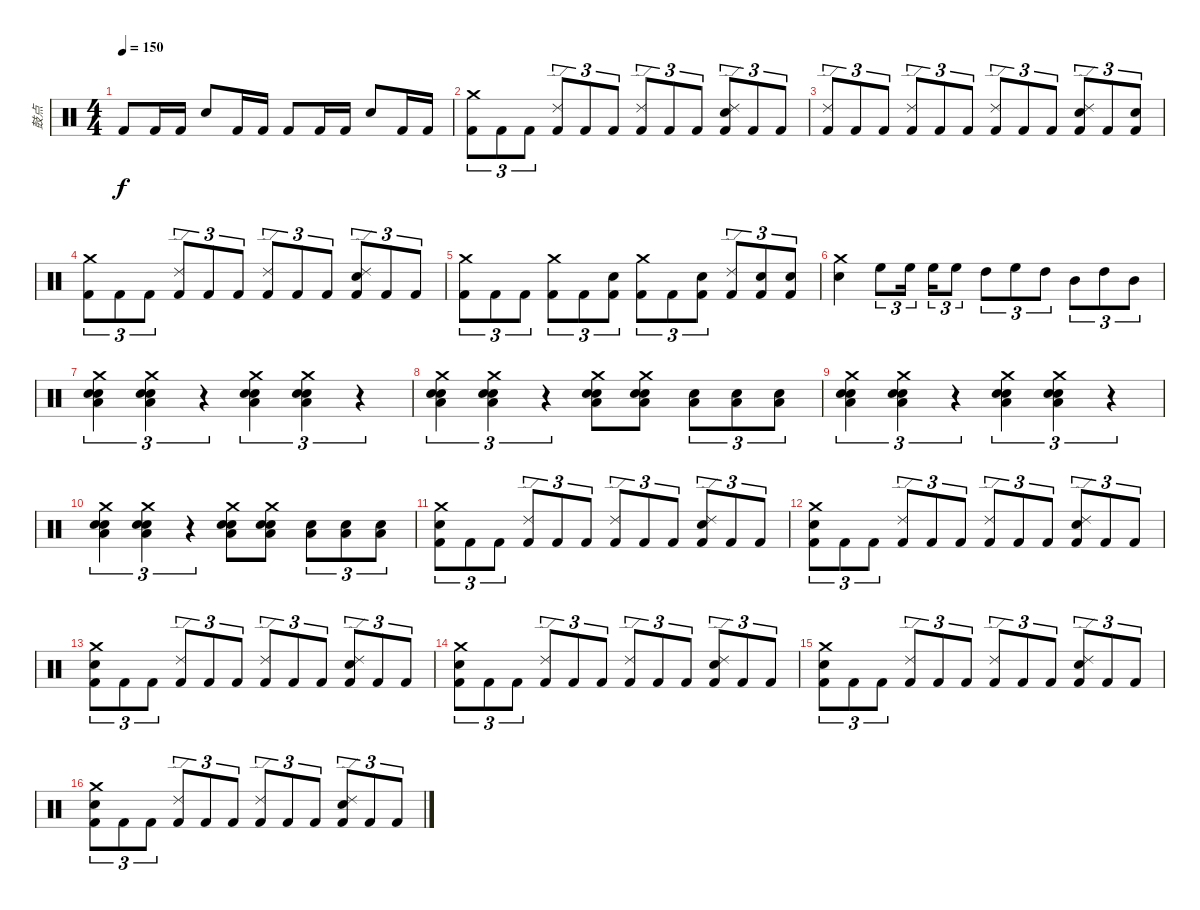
\track ("鼓点" "鼓点") {instrument percussion}
\staff {score}
\articulation defaults
\ts (4 4)
\tempo 150
\clef neutral
\ks c "Kick (hit) 2".8{dy f} "Kick (hit) 2".16 "Kick (hit) 2".16 "Snare (hit) 2".8 "Kick (hit) 2".16 "Kick (hit) 2".16 "Kick (hit) 2".8 "Kick (hit) 2".16 "Kick (hit) 2".16 "Snare (hit) 2".8 "Kick (hit) 2".16 "Kick (hit) 2".16
|
("Kick (hit) 2" "Crash medium (hit)").8{tu (3 2)} "Kick (hit) 2".8{tu (3 2)} "Kick (hit) 2".8{tu (3 2)} ("Kick (hit) 2" "Ride (edge) 2").8{tu (3 2)} "Kick (hit) 2".8{tu (3 2)} "Kick (hit) 2".8{tu (3 2)} ("Kick (hit) 2" "Ride (edge) 2").8{tu (3 2)} "Kick (hit) 2".8{tu (3 2)} "Kick (hit) 2".8{tu (3 2)} ("Kick (hit) 2" "Ride (edge) 2" "Snare (hit) 2").8{tu (3 2)} "Kick (hit) 2".8{tu (3 2)} "Kick (hit) 2".8{tu (3 2)} |
("Kick (hit) 2" "Ride (edge) 2").8{tu (3 2)} "Kick (hit) 2".8{tu (3 2)} "Kick (hit) 2".8{tu (3 2)} ("Kick (hit) 2" "Ride (edge) 2").8{tu (3 2)} "Kick (hit) 2".8{tu (3 2)} "Kick (hit) 2".8{tu (3 2)} ("Kick (hit) 2" "Ride (edge) 2").8{tu (3 2)} "Kick (hit) 2".8{tu (3 2)} "Kick (hit) 2".8{tu (3 2)} ("Kick (hit) 2" "Ride (edge) 2" "Snare (hit) 2").8{tu (3 2)} "Kick (hit) 2".8{tu (3 2)} ("Kick (hit) 2" "Snare (hit) 2").8{tu (3 2)} |
("Kick (hit) 2" "Crash medium (hit)").8{tu (3 2)} "Kick (hit) 2".8{tu (3 2)} "Kick (hit) 2".8{tu (3 2)} ("Kick (hit) 2" "Ride (edge) 2").8{tu (3 2)} "Kick (hit) 2".8{tu (3 2)} "Kick (hit) 2".8{tu (3 2)} ("Kick (hit) 2" "Ride (edge) 2").8{tu (3 2)} "Kick (hit) 2".8{tu (3 2)} "Kick (hit) 2".8{tu (3 2)} ("Kick (hit) 2" "Ride (edge) 2" "Snare (hit) 2").8{tu (3 2)} "Kick (hit) 2".8{tu (3 2)} "Kick (hit) 2".8{tu (3 2)} |
("Kick (hit) 2" "Crash medium (hit)").8{tu (3 2)} "Kick (hit) 2".8{tu (3 2)} "Kick (hit) 2".8{tu (3 2)} ("Kick (hit) 2" "Crash medium (hit)").8{tu (3 2)} "Kick (hit) 2".8{tu (3 2)} ("Kick (hit) 2" "Snare (hit) 2").8{tu (3 2)} ("Kick (hit) 2" "Crash medium (hit)").8{tu (3 2)} "Kick (hit) 2".8{tu (3 2)} ("Kick (hit) 2" "Snare (hit) 2").8{tu (3 2)} ("Kick (hit) 2" "Ride (edge) 2").8{tu (3 2)} ("Kick (hit) 2" "Snare (hit) 2").8{tu (3 2)} ("Kick (hit) 2" "Snare (hit) 2").8{tu (3 2)} |
("Snare (hit) 2" "Crash medium (hit)").4 "High Floor Tom (hit)".8{tu (3 2)} "High Floor Tom (hit)".16{tu (3 2) beam splitsecondary} "High Floor Tom (hit)".16{tu (3 2)} "High Floor Tom (hit)".8{tu (3 2)} "High Tom (hit)".8{tu (3 2)} "High Floor Tom (hit)".8{tu (3 2)} "High Tom (hit)".8{tu (3 2)} "Mid Tom (hit)".8{tu (3 2)} "High Tom (hit)".8{tu (3 2)} "Mid Tom (hit)".8{tu (3 2)} |
("Crash medium (hit)" "Snare (hit) 2" "Hand Clap (hit)" "Low Floor Tom (hit)").4{tu (3 2)} ("Crash medium (hit)" "Snare (hit) 2" "Hand Clap (hit)" "Low Floor Tom (hit)").4{tu (3 2)} r.4{tu (3 2)} ("Crash medium (hit)" "Snare (hit) 2" "Hand Clap (hit)" "Low Floor Tom (hit)").4{tu (3 2)} ("Crash medium (hit)" "Snare (hit) 2" "Hand Clap (hit)" "Low Floor Tom (hit)").4{tu (3 2)} r.4{tu (3 2)} |
("Crash medium (hit)" "Snare (hit) 2" "Hand Clap (hit)" "Low Floor Tom (hit)").4{tu (3 2)} ("Crash medium (hit)" "Snare (hit) 2" "Hand Clap (hit)" "Low Floor Tom (hit)").4{tu (3 2)} r.4{tu (3 2)} ("Crash medium (hit)" "Snare (hit) 2" "Hand Clap (hit)" "Low Floor Tom (hit)").8 ("Crash medium (hit)" "Snare (hit) 2" "Hand Clap (hit)" "Low Floor Tom (hit)").8 ("Snare (hit) 2" "Low Floor Tom (hit)").8{tu (3 2)} ("Snare (hit) 2" "Low Floor Tom (hit)").8{tu (3 2)} ("Snare (hit) 2" "Low Floor Tom (hit)").8{tu (3 2)} |
("Crash medium (hit)" "Snare (hit) 2" "Hand Clap (hit)" "Low Floor Tom (hit)").4{tu (3 2)} ("Crash medium (hit)" "Snare (hit) 2" "Hand Clap (hit)" "Low Floor Tom (hit)").4{tu (3 2)} r.4{tu (3 2)} ("Crash medium (hit)" "Snare (hit) 2" "Hand Clap (hit)" "Low Floor Tom (hit)").4{tu (3 2)} ("Crash medium (hit)" "Snare (hit) 2" "Hand Clap (hit)" "Low Floor Tom (hit)").4{tu (3 2)} r.4{tu (3 2)} |
("Crash medium (hit)" "Snare (hit) 2" "Hand Clap (hit)" "Low Floor Tom (hit)").4{tu (3 2)} ("Crash medium (hit)" "Snare (hit) 2" "Hand Clap (hit)" "Low Floor Tom (hit)").4{tu (3 2)} r.4{tu (3 2)} ("Crash medium (hit)" "Snare (hit) 2" "Hand Clap (hit)" "Low Floor Tom (hit)").8 ("Crash medium (hit)" "Snare (hit) 2" "Hand Clap (hit)" "Low Floor Tom (hit)").8 ("Snare (hit) 2" "Low Floor Tom (hit)").8{tu (3 2)} ("Snare (hit) 2" "Low Floor Tom (hit)").8{tu (3 2)} ("Snare (hit) 2" "Low Floor Tom (hit)").8{tu (3 2)} |
("Kick (hit) 2" "Crash medium (hit)" "Snare (hit) 2").8{tu (3 2)} "Kick (hit) 2".8{tu (3 2)} "Kick (hit) 2".8{tu (3 2)} ("Kick (hit) 2" "Ride (edge) 2").8{tu (3 2)} "Kick (hit) 2".8{tu (3 2)} "Kick (hit) 2".8{tu (3 2)} ("Kick (hit) 2" "Ride (edge) 2").8{tu (3 2)} "Kick (hit) 2".8{tu (3 2)} "Kick (hit) 2".8{tu (3 2)} ("Kick (hit) 2" "Ride (edge) 2" "Snare (hit) 2").8{tu (3 2)} "Kick (hit) 2".8{tu (3 2)} "Kick (hit) 2".8{tu (3 2)} |
("Kick (hit) 2" "Crash medium (hit)" "Snare (hit) 2").8{tu (3 2)} "Kick (hit) 2".8{tu (3 2)} "Kick (hit) 2".8{tu (3 2)} ("Kick (hit) 2" "Ride (edge) 2").8{tu (3 2)} "Kick (hit) 2".8{tu (3 2)} "Kick (hit) 2".8{tu (3 2)} ("Kick (hit) 2" "Ride (edge) 2").8{tu (3 2)} "Kick (hit) 2".8{tu (3 2)} "Kick (hit) 2".8{tu (3 2)} ("Kick (hit) 2" "Ride (edge) 2" "Snare (hit) 2").8{tu (3 2)} "Kick (hit) 2".8{tu (3 2)} "Kick (hit) 2".8{tu (3 2)} |
("Kick (hit) 2" "Crash medium (hit)" "Snare (hit) 2").8{tu (3 2)} "Kick (hit) 2".8{tu (3 2)} "Kick (hit) 2".8{tu (3 2)} ("Kick (hit) 2" "Ride (edge) 2").8{tu (3 2)} "Kick (hit) 2".8{tu (3 2)} "Kick (hit) 2".8{tu (3 2)} ("Kick (hit) 2" "Ride (edge) 2").8{tu (3 2)} "Kick (hit) 2".8{tu (3 2)} "Kick (hit) 2".8{tu (3 2)} ("Kick (hit) 2" "Ride (edge) 2" "Snare (hit) 2").8{tu (3 2)} "Kick (hit) 2".8{tu (3 2)} "Kick (hit) 2".8{tu (3 2)} |
("Kick (hit) 2" "Crash medium (hit)" "Snare (hit) 2").8{tu (3 2)} "Kick (hit) 2".8{tu (3 2)} "Kick (hit) 2".8{tu (3 2)} ("Kick (hit) 2" "Ride (edge) 2").8{tu (3 2)} "Kick (hit) 2".8{tu (3 2)} "Kick (hit) 2".8{tu (3 2)} ("Kick (hit) 2" "Ride (edge) 2").8{tu (3 2)} "Kick (hit) 2".8{tu (3 2)} "Kick (hit) 2".8{tu (3 2)} ("Kick (hit) 2" "Ride (edge) 2" "Snare (hit) 2").8{tu (3 2)} "Kick (hit) 2".8{tu (3 2)} "Kick (hit) 2".8{tu (3 2)} |
("Kick (hit) 2" "Crash medium (hit)" "Snare (hit) 2").8{tu (3 2)} "Kick (hit) 2".8{tu (3 2)} "Kick (hit) 2".8{tu (3 2)} ("Kick (hit) 2" "Ride (edge) 2").8{tu (3 2)} "Kick (hit) 2".8{tu (3 2)} "Kick (hit) 2".8{tu (3 2)} ("Kick (hit) 2" "Ride (edge) 2").8{tu (3 2)} "Kick (hit) 2".8{tu (3 2)} "Kick (hit) 2".8{tu (3 2)} ("Kick (hit) 2" "Ride (edge) 2" "Snare (hit) 2").8{tu (3 2)} "Kick (hit) 2".8{tu (3 2)} "Kick (hit) 2".8{tu (3 2)} |
("Kick (hit) 2" "Crash medium (hit)" "Snare (hit) 2").8{tu (3 2)} "Kick (hit) 2".8{tu (3 2)} "Kick (hit) 2".8{tu (3 2)} ("Kick (hit) 2" "Ride (edge) 2").8{tu (3 2)} "Kick (hit) 2".8{tu (3 2)} "Kick (hit) 2".8{tu (3 2)} ("Kick (hit) 2" "Ride (edge) 2").8{tu (3 2)} "Kick (hit) 2".8{tu (3 2)} "Kick (hit) 2".8{tu (3 2)} ("Kick (hit) 2" "Ride (edge) 2" "Snare (hit) 2").8{tu (3 2)} "Kick (hit) 2".8{tu (3 2)} "Kick (hit) 2".8{tu (3 2)}
